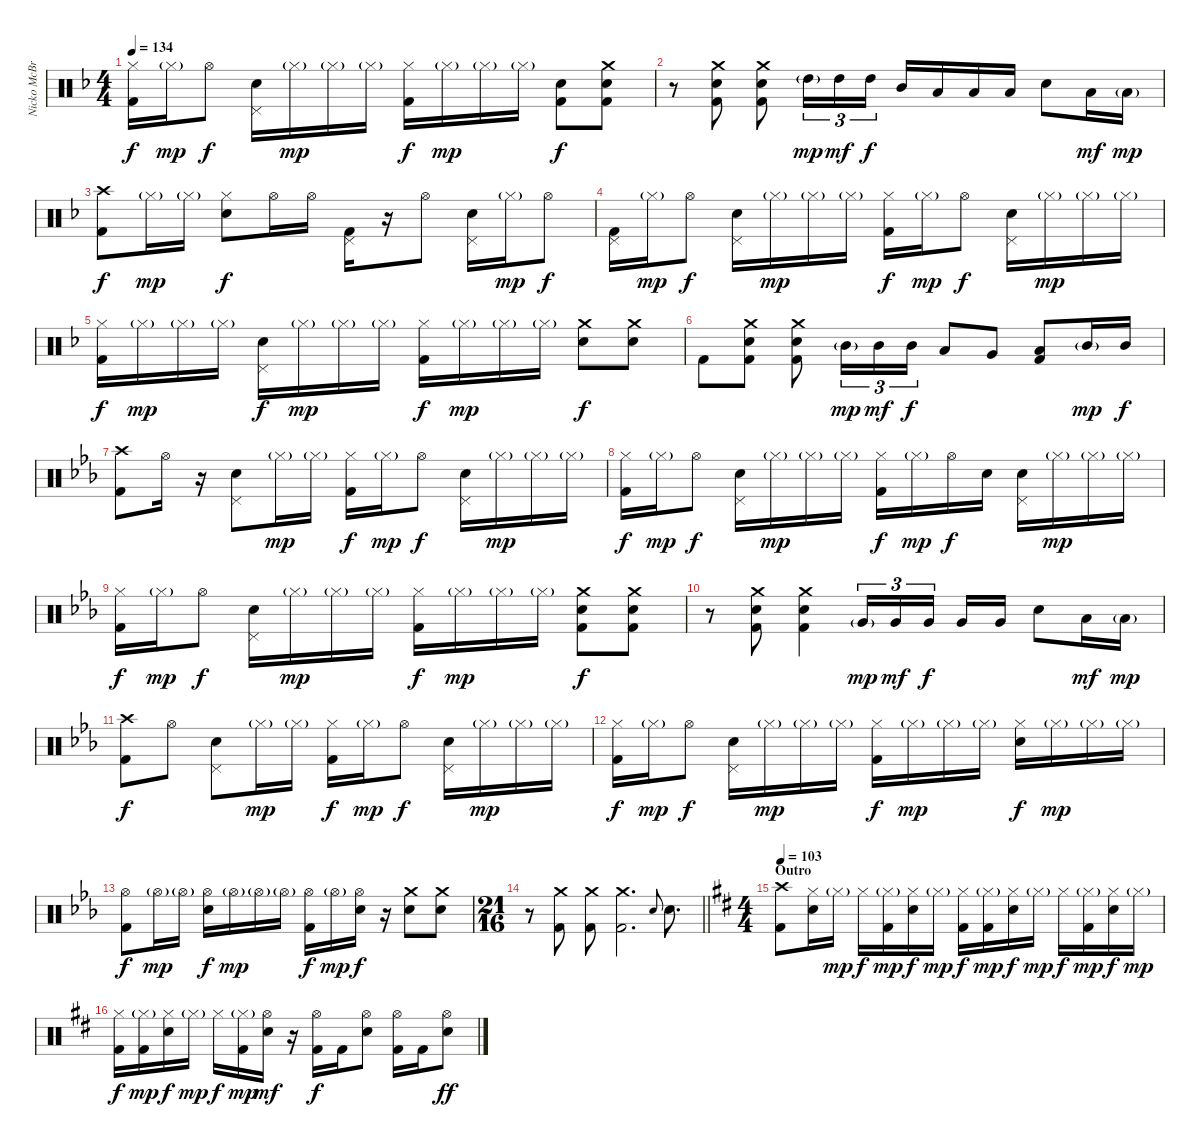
\track ("Nicko McBrain" "Nicko McBr") {instrument percussion}
\staff {score}
\articulation defaults
\ts (4 4)
\tempo 134
\clef neutral
\ks dminor
("Hi-Hat (closed)" "Kick (hit) 2").16{dy f} "Hi-Hat (closed)"{g}.16{dy mp} "Hi-Hat (open)".8{dy f} ("Pedal Hi-Hat (hit)" "Electric Snare (hit)").16 "Hi-Hat (closed)"{g}.16{dy mp} "Hi-Hat (closed)"{g}.16 "Hi-Hat (closed)"{g}.16 ("Hi-Hat (closed)" "Kick (hit) 2").16{dy f} "Hi-Hat (closed)"{g}.16{dy mp} "Hi-Hat (closed)"{g}.16 "Hi-Hat (closed)"{g}.16 ("Electric Snare (hit)" "Kick (hit) 2").8{dy f} ("Crash medium (hit)" "Electric Snare (hit)" "Kick (hit) 2").8 |
r.8 ("Crash medium (hit)" "Electric Snare (hit)" "Kick (hit) 2").8 ("Crash medium (hit)" "Electric Snare (hit)" "Kick (hit) 2").8 "High Tom (hit)"{g}.16{tu (3 2) dy mp} "High Tom (hit)".16{tu (3 2) dy mf} "High Tom (hit)".16{tu (3 2) dy f} "Mid Tom (hit)".16 "Low Tom (hit)".16 "Low Tom (hit)".16 "Low Floor Tom (hit)".16 "Electric Snare (hit)".8 "Low Floor Tom (hit)".16{dy mf} "Low Floor Tom (hit)"{g}.16{dy mp} |
("Crash high (hit)" "Kick (hit) 2").8{dy f} "Hi-Hat (closed)"{g}.16{dy mp} "Hi-Hat (closed)"{g}.16 ("Hi-Hat (closed)" "Electric Snare (hit)").8{dy f} "Hi-Hat (open)".16 "Hi-Hat (open)".16 ("Pedal Hi-Hat (hit)" "Kick (hit) 2").16 r.16 "Hi-Hat (open)".8 ("Pedal Hi-Hat (hit)" "Electric Snare (hit)").16 "Hi-Hat (closed)"{g}.16{dy mp} "Hi-Hat (open)".8{dy f} |
("Pedal Hi-Hat (hit)" "Kick (hit) 2").16 "Hi-Hat (closed)"{g}.16{dy mp} "Hi-Hat (open)".8{dy f} ("Pedal Hi-Hat (hit)" "Electric Snare (hit)").16 "Hi-Hat (closed)"{g}.16{dy mp} "Hi-Hat (closed)"{g}.16 "Hi-Hat (closed)"{g}.16 ("Hi-Hat (closed)" "Kick (hit) 2").16{dy f} "Hi-Hat (closed)"{g}.16{dy mp} "Hi-Hat (open)".8{dy f} ("Pedal Hi-Hat (hit)" "Electric Snare (hit)").16 "Hi-Hat (closed)"{g}.16{dy mp} "Hi-Hat (closed)"{g}.16 "Hi-Hat (closed)"{g}.16 |
("Hi-Hat (closed)" "Kick (hit) 2").16{dy f} "Hi-Hat (closed)"{g}.16{dy mp} "Hi-Hat (closed)"{g}.16 "Hi-Hat (closed)"{g}.16 ("Pedal Hi-Hat (hit)" "Electric Snare (hit)").16{dy f} "Hi-Hat (closed)"{g}.16{dy mp} "Hi-Hat (closed)"{g}.16 "Hi-Hat (closed)"{g}.16 ("Hi-Hat (closed)" "Kick (hit) 2").16{dy f} "Hi-Hat (closed)"{g}.16{dy mp} "Hi-Hat (closed)"{g}.16 "Hi-Hat (closed)"{g}.16 ("Crash medium (hit)" "Electric Snare (hit)").8{dy f} ("Crash medium (hit)" "Electric Snare (hit)").8 |
"Kick (hit) 2".8 ("Crash medium (hit)" "Electric Snare (hit)" "Kick (hit) 2").8 ("Crash medium (hit)" "Electric Snare (hit)" "Kick (hit) 2").8 "Mid Tom (hit)"{g}.16{tu (3 2) dy mp} "Mid Tom (hit)".16{tu (3 2) dy mf} "Mid Tom (hit)".16{tu (3 2) dy f} "Low Tom (hit)".8 "Very Low Tom (hit)".8 ("Low Floor Tom (hit)" "Kick (hit) 2").8 "Mid Tom (hit)"{g}.16{dy mp} "Mid Tom (hit)".16{dy f} |
\ks cminor
("Crash high (hit)" "Kick (hit) 2").8 "Hi-Hat (open)".16 r.16 ("Pedal Hi-Hat (hit)" "Electric Snare (hit)").8 "Hi-Hat (closed)"{g}.16{dy mp} "Hi-Hat (closed)"{g}.16 ("Hi-Hat (closed)" "Kick (hit) 2").16{dy f} "Hi-Hat (closed)"{g}.16{dy mp} "Hi-Hat (open)".8{dy f} ("Pedal Hi-Hat (hit)" "Electric Snare (hit)").16 "Hi-Hat (closed)"{g}.16{dy mp} "Hi-Hat (closed)"{g}.16 "Hi-Hat (closed)"{g}.16 |
("Hi-Hat (closed)" "Kick (hit) 2").16{dy f} "Hi-Hat (closed)"{g}.16{dy mp} "Hi-Hat (open)".8{dy f} ("Pedal Hi-Hat (hit)" "Electric Snare (hit)").16 "Hi-Hat (closed)"{g}.16{dy mp} "Hi-Hat (closed)"{g}.16 "Hi-Hat (closed)"{g}.16 ("Hi-Hat (closed)" "Kick (hit) 2").16{dy f} "Hi-Hat (closed)"{g}.16{dy mp} "Hi-Hat (open)".16{dy f} "Electric Snare (hit)".16 ("Pedal Hi-Hat (hit)" "Electric Snare (hit)").16 "Hi-Hat (closed)"{g}.16{dy mp} "Hi-Hat (closed)"{g}.16 "Hi-Hat (closed)"{g}.16 |
("Hi-Hat (closed)" "Kick (hit) 2").16{dy f} "Hi-Hat (closed)"{g}.16{dy mp} "Hi-Hat (open)".8{dy f} ("Pedal Hi-Hat (hit)" "Electric Snare (hit)").16 "Hi-Hat (closed)"{g}.16{dy mp} "Hi-Hat (closed)"{g}.16 "Hi-Hat (closed)"{g}.16 ("Hi-Hat (closed)" "Kick (hit) 2").16{dy f} "Hi-Hat (closed)"{g}.16{dy mp} "Hi-Hat (closed)"{g}.16 "Hi-Hat (closed)"{g}.16 ("Crash medium (hit)" "Electric Snare (hit)" "Kick (hit) 2").8{dy f} ("Crash medium (hit)" "Electric Snare (hit)" "Kick (hit) 2").8 |
r.8 ("Crash medium (hit)" "Electric Snare (hit)" "Kick (hit) 2").8 ("Crash medium (hit)" "Electric Snare (hit)" "Kick (hit) 2").4 "Very Low Tom (hit)"{g}.16{tu (3 2) dy mp} "Very Low Tom (hit)".16{tu (3 2) dy mf} "Very Low Tom (hit)".16{tu (3 2) dy f beam splitsecondary} "Very Low Tom (hit)".16 "Very Low Tom (hit)".16 "Electric Snare (hit)".8 "Low Floor Tom (hit)".16{dy mf} "Low Floor Tom (hit)"{g}.16{dy mp} |
("Crash high (hit)" "Kick (hit) 2").8{dy f} "Hi-Hat (open)".8 ("Pedal Hi-Hat (hit)" "Electric Snare (hit)").8 "Hi-Hat (closed)"{g}.16{dy mp} "Hi-Hat (closed)"{g}.16 ("Hi-Hat (closed)" "Kick (hit) 2").16{dy f} "Hi-Hat (closed)"{g}.16{dy mp} "Hi-Hat (open)".8{dy f} ("Pedal Hi-Hat (hit)" "Electric Snare (hit)").16 "Hi-Hat (closed)"{g}.16{dy mp} "Hi-Hat (closed)"{g}.16 "Hi-Hat (closed)"{g}.16 |
("Hi-Hat (closed)" "Kick (hit) 2").16{dy f} "Hi-Hat (closed)"{g}.16{dy mp} "Hi-Hat (open)".8{dy f} ("Pedal Hi-Hat (hit)" "Electric Snare (hit)").16 "Hi-Hat (closed)"{g}.16{dy mp} "Hi-Hat (closed)"{g}.16 "Hi-Hat (closed)"{g}.16 ("Hi-Hat (closed)" "Kick (hit) 2").16{dy f} "Hi-Hat (closed)"{g}.16{dy mp} "Hi-Hat (closed)"{g}.16 "Hi-Hat (closed)"{g}.16 ("Hi-Hat (closed)" "Electric Snare (hit)").16{dy f} "Hi-Hat (closed)"{g}.16{dy mp} "Hi-Hat (closed)"{g}.16 "Hi-Hat (closed)"{g}.16 |
("Hi-Hat (open)" "Kick (hit) 2").8{dy f} "Hi-Hat (open)"{g}.16{dy mp} "Hi-Hat (open)"{g}.16 ("Hi-Hat (open)" "Electric Snare (hit)").16{dy f} "Hi-Hat (open)"{g}.16{dy mp} "Hi-Hat (open)"{g}.16 "Hi-Hat (open)"{g}.16 ("Hi-Hat (open)" "Kick (hit) 2").16{dy f} "Hi-Hat (open)"{g}.16{dy mp} ("Hi-Hat (open)" "Electric Snare (hit)").16{dy f} r.16 ("Crash medium (hit)" "Electric Snare (hit)").8 ("Crash medium (hit)" "Electric Snare (hit)").8 |
\ts (21 16)
\barLineRight lightlight
r.8 ("Crash medium (hit)" "Kick (hit) 2").8 ("Crash medium (hit)" "Kick (hit) 2").8 ("Crash medium (hit)" "Kick (hit) 2").2{d} "Electric Snare (hit)".8{gr onbeat} "Electric Snare (hit)".8{d} |
\ts (4 4)
\section ("" "Outro")
\tempo 103
\ks d
("Crash high (hit)" "Kick (hit) 2").8 ("Hi-Hat (closed)" "Electric Snare (hit)").16 "Hi-Hat (closed)"{g}.16{dy mp} "Hi-Hat (closed)".16{dy f} ("Hi-Hat (closed)"{g} "Kick (hit) 2").16{dy mp} ("Hi-Hat (closed)" "Electric Snare (hit)").16{dy f} "Hi-Hat (closed)"{g}.16{dy mp} ("Hi-Hat (closed)" "Kick (hit) 2").16{dy f} ("Hi-Hat (closed)"{g} "Kick (hit) 2").16{dy mp} ("Hi-Hat (closed)" "Electric Snare (hit)").16{dy f} "Hi-Hat (closed)"{g}.16{dy mp} "Hi-Hat (closed)".16{dy f} ("Hi-Hat (closed)"{g} "Kick (hit) 2").16{dy mp} ("Hi-Hat (closed)" "Electric Snare (hit)").16{dy f} "Hi-Hat (closed)"{g}.16{dy mp} |
("Hi-Hat (closed)" "Kick (hit) 2").16{dy f} ("Hi-Hat (closed)"{g} "Kick (hit) 2").16{dy mp} ("Hi-Hat (closed)" "Electric Snare (hit)").16{dy f} "Hi-Hat (closed)"{g}.16{dy mp} "Hi-Hat (closed)".16{dy f} ("Hi-Hat (closed)"{g} "Kick (hit) 2").16{dy mp} ("Hi-Hat (open)" "Electric Snare (hit)").16{dy mf} r.16 ("Hi-Hat (open)" "Kick (hit) 2").16{dy f} "Kick (hit) 2".16 ("Hi-Hat (open)" "Electric Snare (hit)").8 ("Hi-Hat (open)" "Kick (hit) 2").16 "Kick (hit) 2".16 ("Hi-Hat (open)" "Electric Snare (hit)").8{dy ff}
